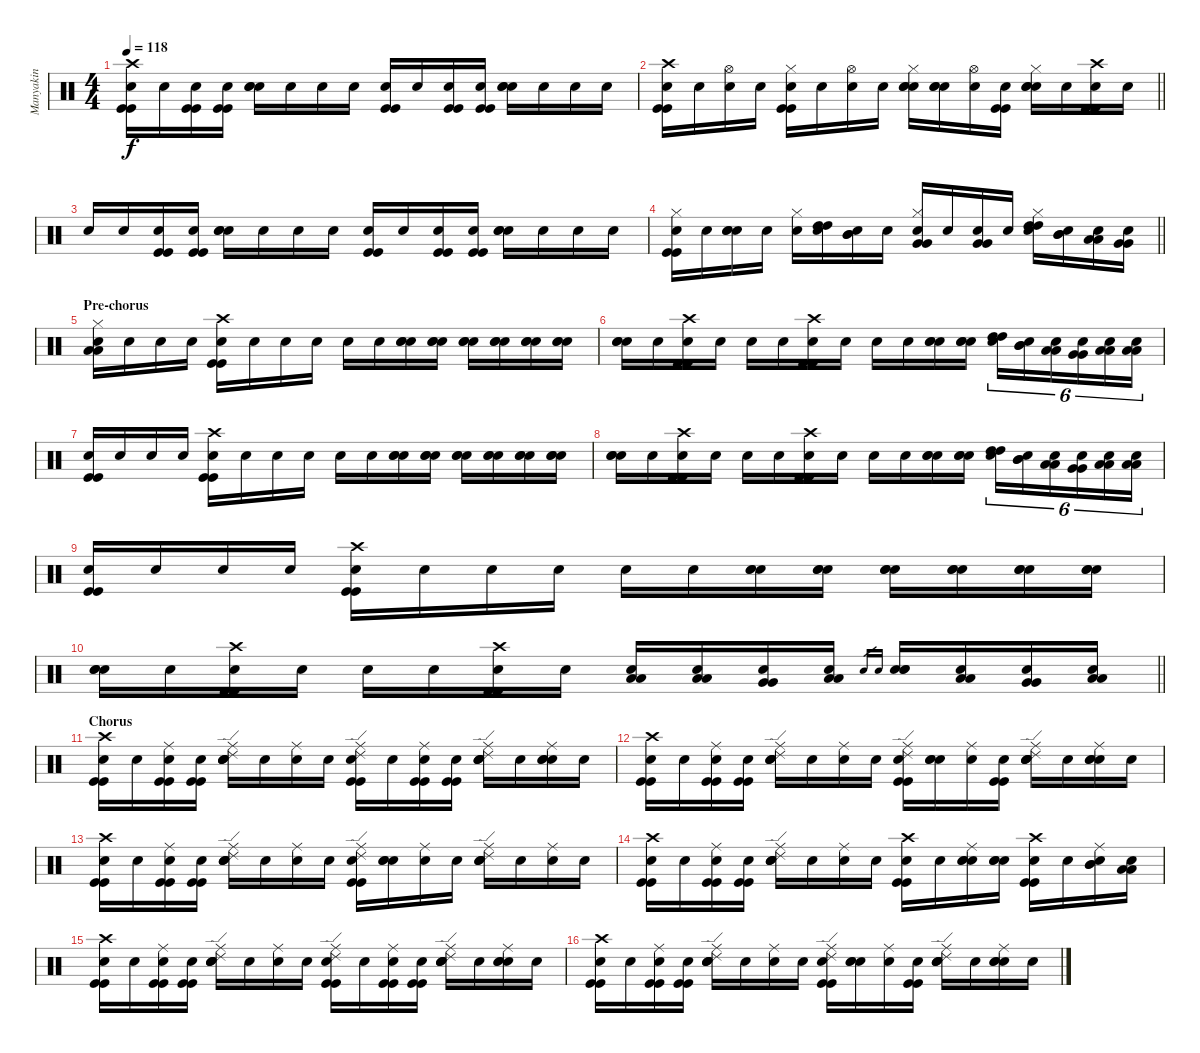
\track ("Manyakin" "Manyakin") {instrument percussion}
\staff {score}
\articulation defaults
\ts (4 4)
\tempo 118
\clef neutral
\ks c
("Crash high (hit)" "Kick (hit)" "Kick (hit)" "Snare (hit)"{x}).16{dy f} "Snare (hit)"{x}.16 ("Kick (hit)" "Kick (hit)" "Snare (hit)"{x}).16 ("Kick (hit)" "Kick (hit)" "Snare (hit)"{x}).16 ("Electric Snare (hit)" "Electric Snare (hit)" "Snare (hit)"{x}).16 "Snare (hit)"{x}.16 "Snare (hit)"{x}.16 "Snare (hit)"{x}.16 ("Kick (hit)" "Kick (hit)" "Snare (hit)"{x}).16 "Snare (hit)"{x}.16 ("Kick (hit)" "Kick (hit)" "Snare (hit)"{x}).16 ("Kick (hit)" "Kick (hit)" "Snare (hit)"{x}).16 ("Electric Snare (hit)" "Electric Snare (hit)" "Snare (hit)"{x}).16 "Snare (hit)"{x}.16 "Snare (hit)"{x}.16 "Snare (hit)"{x}.16 |
\barLineRight lightlight
("Crash high (hit)" "Kick (hit)" "Kick (hit)" "Snare (hit)"{x}).16 "Snare (hit)"{x}.16 ("Hi-Hat (open)" "Snare (hit)"{x}).16 "Snare (hit)"{x}.16 ("Hi-Hat (closed)" "Kick (hit)" "Kick (hit)" "Snare (hit)"{x}).16 "Snare (hit)"{x}.16 ("Hi-Hat (open)" "Snare (hit)"{x}).16 "Snare (hit)"{x}.16 ("Hi-Hat (closed)" "Electric Snare (hit)" "Electric Snare (hit)" "Snare (hit)"{x}).16 ("Electric Snare (hit)" "Electric Snare (hit)" "Snare (hit)"{x}).16 ("Hi-Hat (open)" "Snare (hit)"{x}).16 ("Kick (hit)" "Kick (hit)" "Snare (hit)"{x}).16 ("Hi-Hat (closed)" "Electric Snare (hit)" "Electric Snare (hit)" "Snare (hit)"{x}).16 "Snare (hit)"{x}.16 ("Crash high (hit)" "Kick (hit)" "Kick (hit)" "Snare (hit)"{x}).16 "Snare (hit)"{x}.16 |
"Snare (hit)"{x}.16 "Snare (hit)"{x}.16 ("Kick (hit)" "Kick (hit)" "Snare (hit)"{x}).16 ("Kick (hit)" "Kick (hit)" "Snare (hit)"{x}).16 ("Electric Snare (hit)" "Electric Snare (hit)" "Snare (hit)"{x}).16 "Snare (hit)"{x}.16 "Snare (hit)"{x}.16 "Snare (hit)"{x}.16 ("Kick (hit)" "Kick (hit)" "Snare (hit)"{x}).16 "Snare (hit)"{x}.16 ("Kick (hit)" "Kick (hit)" "Snare (hit)"{x}).16 ("Kick (hit)" "Kick (hit)" "Snare (hit)"{x}).16 ("Electric Snare (hit)" "Electric Snare (hit)" "Snare (hit)"{x}).16 "Snare (hit)"{x}.16 "Snare (hit)"{x}.16 "Snare (hit)"{x}.16 |
\barLineRight lightlight
("Hi-Hat (closed)" "Kick (hit)" "Kick (hit)" "Snare (hit)"{x}).16 "Snare (hit)"{x}.16 ("Electric Snare (hit)" "Electric Snare (hit)" "Snare (hit)"{x}).16 "Snare (hit)"{x}.16 ("Hi-Hat (closed)" "Snare (hit)"{x}).16 ("High Tom (hit)" "High Tom (hit)" "Snare (hit)"{x}).16 ("Mid Tom (hit)" "Mid Tom (hit)" "Snare (hit)"{x}).16 "Snare (hit)"{x}.16 ("Hi-Hat (closed)" "Very Low Tom (hit)" "Very Low Tom (hit)" "Snare (hit)"{x}).16 "Snare (hit)"{x}.16 ("Very Low Tom (hit)" "Very Low Tom (hit)" "Snare (hit)"{x}).16 "Snare (hit)"{x}.16 ("Hi-Hat (closed)" "High Tom (hit)" "High Tom (hit)" "Snare (hit)"{x}).16 ("Mid Tom (hit)" "Mid Tom (hit)" "Snare (hit)"{x}).16 ("Low Tom (hit)" "Low Tom (hit)" "Snare (hit)"{x}).16 ("Very Low Tom (hit)" "Very Low Tom (hit)" "Snare (hit)"{x}).16 |
\section ("" "Pre-chorus")
("Hi-Hat (closed)" "Low Floor Tom (hit)" "Low Floor Tom (hit)" "Snare (hit)"{x}).16 "Snare (hit)"{x}.16 "Snare (hit)"{x}.16 "Snare (hit)"{x}.16 ("Crash high (hit)" "Kick (hit)" "Kick (hit)" "Snare (hit)"{x}).16 "Snare (hit)"{x}.16 "Snare (hit)"{x}.16 "Snare (hit)"{x}.16 "Snare (hit)"{x}.16 "Snare (hit)"{x}.16 ("Electric Snare (hit)" "Electric Snare (hit)" "Snare (hit)"{x}).16 ("Electric Snare (hit)" "Electric Snare (hit)" "Snare (hit)"{x}).16 ("Electric Snare (hit)" "Electric Snare (hit)" "Snare (hit)"{x}).16 ("Electric Snare (hit)" "Electric Snare (hit)" "Snare (hit)"{x}).16 ("Electric Snare (hit)" "Electric Snare (hit)" "Snare (hit)"{x}).16 ("Electric Snare (hit)" "Electric Snare (hit)" "Snare (hit)"{x}).16 |
("Electric Snare (hit)" "Electric Snare (hit)" "Snare (hit)"{x}).16 "Snare (hit)"{x}.16 ("Crash high (hit)" "Kick (hit)" "Kick (hit)" "Snare (hit)"{x}).16 "Snare (hit)"{x}.16 "Snare (hit)"{x}.16 "Snare (hit)"{x}.16 ("Crash high (hit)" "Kick (hit)" "Kick (hit)" "Snare (hit)"{x}).16 "Snare (hit)"{x}.16 "Snare (hit)"{x}.16 "Snare (hit)"{x}.16 ("Electric Snare (hit)" "Electric Snare (hit)" "Snare (hit)"{x}).16 ("Electric Snare (hit)" "Electric Snare (hit)" "Snare (hit)"{x}).16 ("High Tom (hit)" "High Tom (hit)" "Snare (hit)"{x}).16{tu (6 4)} ("Mid Tom (hit)" "Mid Tom (hit)" "Snare (hit)"{x}).16{tu (6 4)} ("Low Tom (hit)" "Low Tom (hit)" "Snare (hit)"{x}).16{tu (6 4)} ("Very Low Tom (hit)" "Very Low Tom (hit)" "Snare (hit)"{x}).16{tu (6 4)} ("Low Floor Tom (hit)" "Low Floor Tom (hit)" "Snare (hit)"{x}).16{tu (6 4)} ("Low Floor Tom (hit)" "Low Floor Tom (hit)" "Snare (hit)"{x}).16{tu (6 4)} |
("Kick (hit)" "Kick (hit)" "Snare (hit)"{x}).16 "Snare (hit)"{x}.16 "Snare (hit)"{x}.16 "Snare (hit)"{x}.16 ("Crash high (hit)" "Kick (hit)" "Kick (hit)" "Snare (hit)"{x}).16 "Snare (hit)"{x}.16 "Snare (hit)"{x}.16 "Snare (hit)"{x}.16 "Snare (hit)"{x}.16 "Snare (hit)"{x}.16 ("Electric Snare (hit)" "Electric Snare (hit)" "Snare (hit)"{x}).16 ("Electric Snare (hit)" "Electric Snare (hit)" "Snare (hit)"{x}).16 ("Electric Snare (hit)" "Electric Snare (hit)" "Snare (hit)"{x}).16 ("Electric Snare (hit)" "Electric Snare (hit)" "Snare (hit)"{x}).16 ("Electric Snare (hit)" "Electric Snare (hit)" "Snare (hit)"{x}).16 ("Electric Snare (hit)" "Electric Snare (hit)" "Snare (hit)"{x}).16 |
("Electric Snare (hit)" "Electric Snare (hit)" "Snare (hit)"{x}).16 "Snare (hit)"{x}.16 ("Crash high (hit)" "Kick (hit)" "Kick (hit)" "Snare (hit)"{x}).16 "Snare (hit)"{x}.16 "Snare (hit)"{x}.16 "Snare (hit)"{x}.16 ("Crash high (hit)" "Kick (hit)" "Kick (hit)" "Snare (hit)"{x}).16 "Snare (hit)"{x}.16 "Snare (hit)"{x}.16 "Snare (hit)"{x}.16 ("Electric Snare (hit)" "Electric Snare (hit)" "Snare (hit)"{x}).16 ("Electric Snare (hit)" "Electric Snare (hit)" "Snare (hit)"{x}).16 ("High Tom (hit)" "High Tom (hit)" "Snare (hit)"{x}).16{tu (6 4)} ("Mid Tom (hit)" "Mid Tom (hit)" "Snare (hit)"{x}).16{tu (6 4)} ("Low Tom (hit)" "Low Tom (hit)" "Snare (hit)"{x}).16{tu (6 4)} ("Very Low Tom (hit)" "Very Low Tom (hit)" "Snare (hit)"{x}).16{tu (6 4)} ("Low Floor Tom (hit)" "Low Floor Tom (hit)" "Snare (hit)"{x}).16{tu (6 4)} ("Low Floor Tom (hit)" "Low Floor Tom (hit)" "Snare (hit)"{x}).16{tu (6 4)} |
("Kick (hit)" "Kick (hit)" "Snare (hit)"{x}).16 "Snare (hit)"{x}.16 "Snare (hit)"{x}.16 "Snare (hit)"{x}.16 ("Crash high (hit)" "Kick (hit)" "Kick (hit)" "Snare (hit)"{x}).16 "Snare (hit)"{x}.16 "Snare (hit)"{x}.16 "Snare (hit)"{x}.16 "Snare (hit)"{x}.16 "Snare (hit)"{x}.16 ("Electric Snare (hit)" "Electric Snare (hit)" "Snare (hit)"{x}).16 ("Electric Snare (hit)" "Electric Snare (hit)" "Snare (hit)"{x}).16 ("Electric Snare (hit)" "Electric Snare (hit)" "Snare (hit)"{x}).16 ("Electric Snare (hit)" "Electric Snare (hit)" "Snare (hit)"{x}).16 ("Electric Snare (hit)" "Electric Snare (hit)" "Snare (hit)"{x}).16 ("Electric Snare (hit)" "Electric Snare (hit)" "Snare (hit)"{x}).16 |
\barLineRight lightlight
("Electric Snare (hit)" "Electric Snare (hit)" "Snare (hit)"{x}).16 "Snare (hit)"{x}.16 ("Crash high (hit)" "Kick (hit)" "Kick (hit)" "Snare (hit)"{x}).16 "Snare (hit)"{x}.16 "Snare (hit)"{x}.16 "Snare (hit)"{x}.16 ("Crash high (hit)" "Kick (hit)" "Kick (hit)" "Snare (hit)"{x}).16 "Snare (hit)"{x}.16 ("Low Floor Tom (hit)" "Low Floor Tom (hit)" "Snare (hit)"{x}).16 ("Low Floor Tom (hit)" "Low Floor Tom (hit)" "Snare (hit)"{x}).16 ("Very Low Tom (hit)" "Very Low Tom (hit)" "Snare (hit)"{x}).16 ("Low Tom (hit)" "Low Tom (hit)" "Snare (hit)"{x}).16 "Electric Snare (hit)".16{gr} "Electric Snare (hit)".16{gr} ("Electric Snare (hit)" "Electric Snare (hit)" "Snare (hit)"{x}).16 ("Low Tom (hit)" "Low Tom (hit)" "Snare (hit)"{x}).16 ("Very Low Tom (hit)" "Very Low Tom (hit)" "Snare (hit)"{x}).16 ("Low Floor Tom (hit)" "Low Floor Tom (hit)" "Snare (hit)"{x}).16 |
\section ("" "Chorus")
("Crash high (hit)" "Kick (hit)" "Kick (hit)" "Snare (hit)"{x}).16 "Snare (hit)"{x}.16 ("Ride (middle)" "Kick (hit)" "Kick (hit)" "Snare (hit)"{x}).16 ("Kick (hit)" "Kick (hit)" "Snare (hit)"{x}).16 ("Ride (middle)" "Ride (edge) 2" "Electric Snare (hit)" "Electric Snare (hit)" "Snare (hit)"{x}).16 "Snare (hit)"{x}.16 ("Ride (middle)" "Snare (hit)"{x}).16 "Snare (hit)"{x}.16 ("Ride (middle)" "Ride (edge) 2" "Kick (hit)" "Kick (hit)" "Snare (hit)"{x}).16 "Snare (hit)"{x}.16 ("Ride (middle)" "Kick (hit)" "Kick (hit)" "Snare (hit)"{x}).16 ("Kick (hit)" "Kick (hit)" "Snare (hit)"{x}).16 ("Ride (middle)" "Ride (edge) 2" "Electric Snare (hit)" "Electric Snare (hit)" "Snare (hit)"{x}).16 "Snare (hit)"{x}.16 ("Ride (middle)" "Electric Snare (hit)" "Electric Snare (hit)" "Snare (hit)"{x}).16 "Snare (hit)"{x}.16 |
("Crash high (hit)" "Kick (hit)" "Kick (hit)" "Snare (hit)"{x}).16 "Snare (hit)"{x}.16 ("Ride (middle)" "Kick (hit)" "Kick (hit)" "Snare (hit)"{x}).16 ("Kick (hit)" "Kick (hit)" "Snare (hit)"{x}).16 ("Ride (middle)" "Ride (edge) 2" "Electric Snare (hit)" "Electric Snare (hit)" "Snare (hit)"{x}).16 "Snare (hit)"{x}.16 ("Ride (middle)" "Snare (hit)"{x}).16 "Snare (hit)"{x}.16 ("Ride (middle)" "Ride (edge) 2" "Kick (hit)" "Kick (hit)" "Snare (hit)"{x}).16 ("Electric Snare (hit)" "Electric Snare (hit)" "Snare (hit)"{x}).16 ("Ride (middle)" "Snare (hit)"{x}).16 ("Kick (hit)" "Kick (hit)" "Snare (hit)"{x}).16 ("Ride (middle)" "Ride (edge) 2" "Electric Snare (hit)" "Electric Snare (hit)" "Snare (hit)"{x}).16 "Snare (hit)"{x}.16 ("Ride (middle)" "Electric Snare (hit)" "Electric Snare (hit)" "Snare (hit)"{x}).16 "Snare (hit)"{x}.16 |
("Crash high (hit)" "Kick (hit)" "Kick (hit)" "Snare (hit)"{x}).16 "Snare (hit)"{x}.16 ("Ride (middle)" "Kick (hit)" "Kick (hit)" "Snare (hit)"{x}).16 ("Kick (hit)" "Kick (hit)" "Snare (hit)"{x}).16 ("Ride (middle)" "Ride (edge) 2" "Electric Snare (hit)" "Electric Snare (hit)" "Snare (hit)"{x}).16 "Snare (hit)"{x}.16 ("Ride (middle)" "Snare (hit)"{x}).16 "Snare (hit)"{x}.16 ("Ride (middle)" "Ride (edge) 2" "Kick (hit)" "Kick (hit)" "Snare (hit)"{x}).16 ("Electric Snare (hit)" "Electric Snare (hit)" "Snare (hit)"{x}).16 ("Ride (middle)" "Snare (hit)"{x}).16 "Snare (hit)"{x}.16 ("Ride (middle)" "Ride (edge) 2" "Electric Snare (hit)" "Electric Snare (hit)" "Snare (hit)"{x}).16 "Snare (hit)"{x}.16 ("Ride (middle)" "Snare (hit)"{x}).16 "Snare (hit)"{x}.16 |
("Crash high (hit)" "Kick (hit)" "Kick (hit)" "Snare (hit)"{x}).16 "Snare (hit)"{x}.16 ("Ride (middle)" "Kick (hit)" "Kick (hit)" "Snare (hit)"{x}).16 ("Kick (hit)" "Kick (hit)" "Snare (hit)"{x}).16 ("Ride (middle)" "Ride (edge) 2" "Electric Snare (hit)" "Electric Snare (hit)" "Snare (hit)"{x}).16 "Snare (hit)"{x}.16 ("Ride (middle)" "Snare (hit)"{x}).16 "Snare (hit)"{x}.16 ("Crash high (hit)" "Kick (hit)" "Kick (hit)" "Snare (hit)"{x}).16 "Snare (hit)"{x}.16 ("Ride (middle)" "Electric Snare (hit)" "Electric Snare (hit)" "Snare (hit)"{x}).16 ("Electric Snare (hit)" "Electric Snare (hit)" "Snare (hit)"{x}).16 ("Crash high (hit)" "Kick (hit)" "Kick (hit)" "Snare (hit)"{x}).16 "Snare (hit)"{x}.16 ("Ride (middle)" "Mid Tom (hit)" "Mid Tom (hit)" "Snare (hit)"{x}).16 ("Low Tom (hit)" "Low Tom (hit)" "Snare (hit)"{x}).16 |
("Crash high (hit)" "Kick (hit)" "Kick (hit)" "Snare (hit)"{x}).16 "Snare (hit)"{x}.16 ("Ride (middle)" "Kick (hit)" "Kick (hit)" "Snare (hit)"{x}).16 ("Kick (hit)" "Kick (hit)" "Snare (hit)"{x}).16 ("Ride (middle)" "Ride (edge) 2" "Electric Snare (hit)" "Electric Snare (hit)" "Snare (hit)"{x}).16 "Snare (hit)"{x}.16 ("Ride (middle)" "Snare (hit)"{x}).16 "Snare (hit)"{x}.16 ("Ride (middle)" "Ride (edge) 2" "Kick (hit)" "Kick (hit)" "Snare (hit)"{x}).16 "Snare (hit)"{x}.16 ("Ride (middle)" "Kick (hit)" "Kick (hit)" "Snare (hit)"{x}).16 ("Kick (hit)" "Kick (hit)" "Snare (hit)"{x}).16 ("Ride (middle)" "Ride (edge) 2" "Electric Snare (hit)" "Electric Snare (hit)" "Snare (hit)"{x}).16 "Snare (hit)"{x}.16 ("Ride (middle)" "Electric Snare (hit)" "Electric Snare (hit)" "Snare (hit)"{x}).16 "Snare (hit)"{x}.16 |
("Crash high (hit)" "Kick (hit)" "Kick (hit)" "Snare (hit)"{x}).16 "Snare (hit)"{x}.16 ("Ride (middle)" "Kick (hit)" "Kick (hit)" "Snare (hit)"{x}).16 ("Kick (hit)" "Kick (hit)" "Snare (hit)"{x}).16 ("Ride (middle)" "Ride (edge) 2" "Electric Snare (hit)" "Electric Snare (hit)" "Snare (hit)"{x}).16 "Snare (hit)"{x}.16 ("Ride (middle)" "Snare (hit)"{x}).16 "Snare (hit)"{x}.16 ("Ride (middle)" "Ride (edge) 2" "Kick (hit)" "Kick (hit)" "Snare (hit)"{x}).16 ("Electric Snare (hit)" "Electric Snare (hit)" "Snare (hit)"{x}).16 ("Ride (middle)" "Snare (hit)"{x}).16 ("Kick (hit)" "Kick (hit)" "Snare (hit)"{x}).16 ("Ride (middle)" "Ride (edge) 2" "Electric Snare (hit)" "Electric Snare (hit)" "Snare (hit)"{x}).16 "Snare (hit)"{x}.16 ("Ride (middle)" "Electric Snare (hit)" "Electric Snare (hit)" "Snare (hit)"{x}).16 "Snare (hit)"{x}.16
